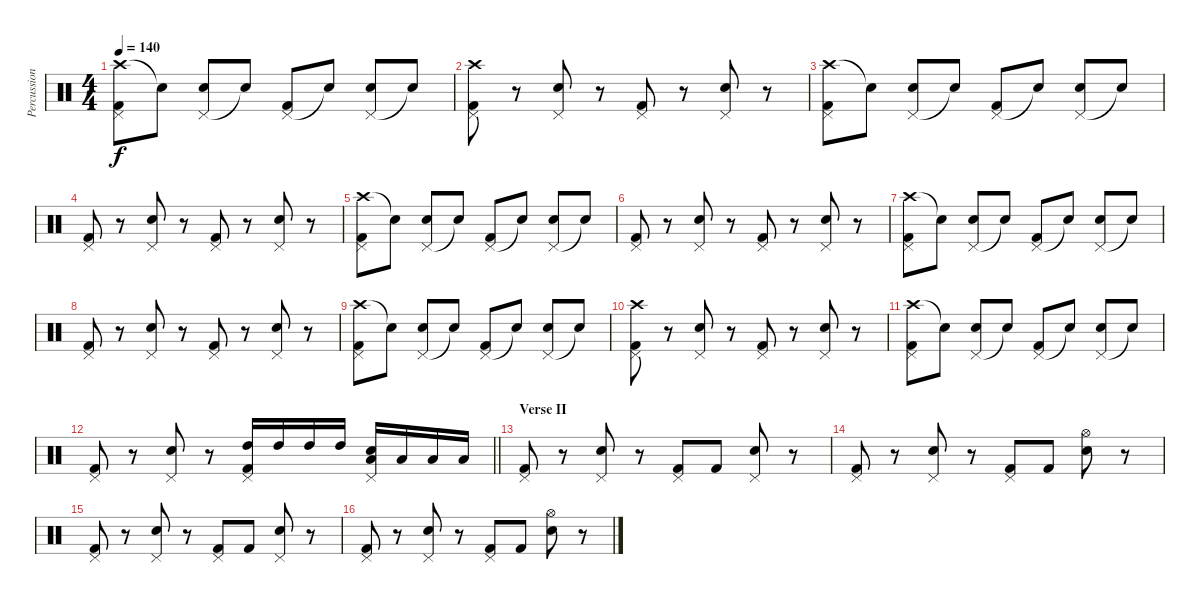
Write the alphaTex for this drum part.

\track ("Percussion" "Percussion") {instrument percussion}
\staff {score}
\articulation defaults
\ts (4 4)
\tempo 140
\clef neutral
\ks c
("Crash high (hit)" "Pedal Hi-Hat (hit)" "Kick (hit) 2").8{dy f} "Snare (hit)"{t}.8 ("Pedal Hi-Hat (hit)" "Electric Snare (hit)").8 "Snare (hit)"{t}.8 ("Pedal Hi-Hat (hit)" "Kick (hit) 2").8 "Snare (hit)"{t}.8 ("Pedal Hi-Hat (hit)" "Electric Snare (hit)").8 "Snare (hit)"{t}.8 |
("Crash high (hit)" "Pedal Hi-Hat (hit)" "Kick (hit) 2").8 r.8 ("Pedal Hi-Hat (hit)" "Electric Snare (hit)").8 r.8 ("Pedal Hi-Hat (hit)" "Kick (hit) 2").8 r.8 ("Pedal Hi-Hat (hit)" "Electric Snare (hit)").8 r.8 |
("Crash high (hit)" "Pedal Hi-Hat (hit)" "Kick (hit) 2").8 "Snare (hit)"{t}.8 ("Pedal Hi-Hat (hit)" "Electric Snare (hit)").8 "Snare (hit)"{t}.8 ("Pedal Hi-Hat (hit)" "Kick (hit) 2").8 "Snare (hit)"{t}.8 ("Pedal Hi-Hat (hit)" "Electric Snare (hit)").8 "Snare (hit)"{t}.8 |
("Pedal Hi-Hat (hit)" "Kick (hit) 2").8 r.8 ("Pedal Hi-Hat (hit)" "Electric Snare (hit)").8 r.8 ("Pedal Hi-Hat (hit)" "Kick (hit) 2").8 r.8 ("Pedal Hi-Hat (hit)" "Electric Snare (hit)").8 r.8 |
("Crash high (hit)" "Pedal Hi-Hat (hit)" "Kick (hit) 2").8 "Snare (hit)"{t}.8 ("Pedal Hi-Hat (hit)" "Electric Snare (hit)").8 "Snare (hit)"{t}.8 ("Pedal Hi-Hat (hit)" "Kick (hit) 2").8 "Snare (hit)"{t}.8 ("Pedal Hi-Hat (hit)" "Electric Snare (hit)").8 "Snare (hit)"{t}.8 |
("Pedal Hi-Hat (hit)" "Kick (hit) 2").8 r.8 ("Pedal Hi-Hat (hit)" "Electric Snare (hit)").8 r.8 ("Pedal Hi-Hat (hit)" "Kick (hit) 2").8 r.8 ("Pedal Hi-Hat (hit)" "Electric Snare (hit)").8 r.8 |
("Crash high (hit)" "Pedal Hi-Hat (hit)" "Kick (hit) 2").8 "Snare (hit)"{t}.8 ("Pedal Hi-Hat (hit)" "Electric Snare (hit)").8 "Snare (hit)"{t}.8 ("Pedal Hi-Hat (hit)" "Kick (hit) 2").8 "Snare (hit)"{t}.8 ("Pedal Hi-Hat (hit)" "Electric Snare (hit)").8 "Snare (hit)"{t}.8 |
("Pedal Hi-Hat (hit)" "Kick (hit) 2").8 r.8 ("Pedal Hi-Hat (hit)" "Electric Snare (hit)").8 r.8 ("Pedal Hi-Hat (hit)" "Kick (hit) 2").8 r.8 ("Pedal Hi-Hat (hit)" "Electric Snare (hit)").8 r.8 |
("Crash high (hit)" "Pedal Hi-Hat (hit)" "Kick (hit) 2").8 "Snare (hit)"{t}.8 ("Pedal Hi-Hat (hit)" "Electric Snare (hit)").8 "Snare (hit)"{t}.8 ("Pedal Hi-Hat (hit)" "Kick (hit) 2").8 "Snare (hit)"{t}.8 ("Pedal Hi-Hat (hit)" "Electric Snare (hit)").8 "Snare (hit)"{t}.8 |
("Crash high (hit)" "Pedal Hi-Hat (hit)" "Kick (hit) 2").8 r.8 ("Pedal Hi-Hat (hit)" "Electric Snare (hit)").8 r.8 ("Pedal Hi-Hat (hit)" "Kick (hit) 2").8 r.8 ("Pedal Hi-Hat (hit)" "Electric Snare (hit)").8 r.8 |
("Crash high (hit)" "Pedal Hi-Hat (hit)" "Kick (hit) 2").8 "Snare (hit)"{t}.8 ("Pedal Hi-Hat (hit)" "Electric Snare (hit)").8 "Snare (hit)"{t}.8 ("Pedal Hi-Hat (hit)" "Kick (hit) 2").8 "Snare (hit)"{t}.8 ("Pedal Hi-Hat (hit)" "Electric Snare (hit)").8 "Snare (hit)"{t}.8 |
\barLineRight lightlight
("Pedal Hi-Hat (hit)" "Kick (hit) 2").8 r.8 ("Pedal Hi-Hat (hit)" "Electric Snare (hit)").8 r.8 ("High Tom (hit)" "Pedal Hi-Hat (hit)" "Kick (hit) 2").16 "High Tom (hit)".16 "High Tom (hit)".16 "High Tom (hit)".16 ("Low Tom (hit)" "Pedal Hi-Hat (hit)" "Electric Snare (hit)").16 "Low Tom (hit)".16 "Low Tom (hit)".16 "Low Tom (hit)".16 |
\section ("" "Verse II")
("Pedal Hi-Hat (hit)" "Kick (hit) 2").8 r.8 ("Pedal Hi-Hat (hit)" "Electric Snare (hit)").8 r.8 ("Pedal Hi-Hat (hit)" "Kick (hit) 2").8 "Kick (hit) 2".8 ("Pedal Hi-Hat (hit)" "Electric Snare (hit)").8 r.8 |
("Pedal Hi-Hat (hit)" "Kick (hit) 2").8 r.8 ("Pedal Hi-Hat (hit)" "Electric Snare (hit)").8 r.8 ("Pedal Hi-Hat (hit)" "Kick (hit) 2").8 "Kick (hit) 2".8 ("Hi-Hat (open)" "Electric Snare (hit)").8 r.8 |
("Pedal Hi-Hat (hit)" "Kick (hit) 2").8 r.8 ("Pedal Hi-Hat (hit)" "Electric Snare (hit)").8 r.8 ("Pedal Hi-Hat (hit)" "Kick (hit) 2").8 "Kick (hit) 2".8 ("Pedal Hi-Hat (hit)" "Electric Snare (hit)").8 r.8 |
("Pedal Hi-Hat (hit)" "Kick (hit) 2").8 r.8 ("Pedal Hi-Hat (hit)" "Electric Snare (hit)").8 r.8 ("Pedal Hi-Hat (hit)" "Kick (hit) 2").8 "Kick (hit) 2".8 ("Hi-Hat (open)" "Electric Snare (hit)").8 r.8
